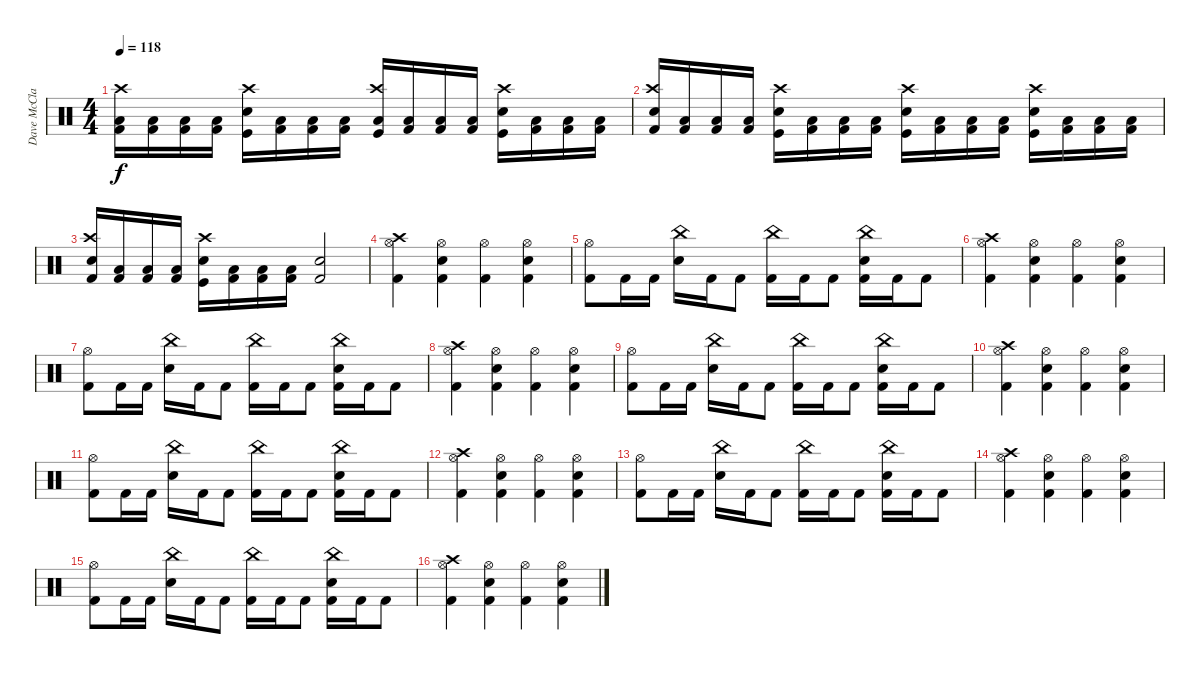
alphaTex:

\track ("Dave McClain" "Dave McCla") {instrument percussion}
\staff {score}
\articulation defaults
\ts (4 4)
\tempo 118
\clef neutral
\ks c
("Kick (hit) 2" "Low Floor Tom (hit)" "Crash high (hit)").16{dy f} ("Kick (hit) 2" "Low Floor Tom (hit)").16 ("Kick (hit) 2" "Low Floor Tom (hit)").16 ("Kick (hit) 2" "Low Floor Tom (hit)").16 ("Kick (hit)" "Snare (hit) 2" "Crash high (hit)").16 ("Kick (hit) 2" "Low Floor Tom (hit)").16 ("Kick (hit) 2" "Low Floor Tom (hit)").16 ("Kick (hit) 2" "Low Floor Tom (hit)").16 ("Kick (hit)" "Low Floor Tom (hit)" "Crash high (hit)").16 ("Kick (hit) 2" "Low Floor Tom (hit)").16 ("Kick (hit) 2" "Low Floor Tom (hit)").16 ("Kick (hit) 2" "Low Floor Tom (hit)").16 ("Kick (hit)" "Snare (hit) 2" "Crash high (hit)").16 ("Kick (hit) 2" "Low Floor Tom (hit)").16 ("Kick (hit) 2" "Low Floor Tom (hit)").16 ("Kick (hit) 2" "Low Floor Tom (hit)").16 |
("Kick (hit) 2" "Snare (hit) 2" "Crash high (hit)").16 ("Kick (hit) 2" "Low Floor Tom (hit)").16 ("Kick (hit) 2" "Low Floor Tom (hit)").16 ("Kick (hit) 2" "Low Floor Tom (hit)").16 ("Kick (hit)" "Snare (hit) 2" "Crash high (hit)").16 ("Kick (hit) 2" "Low Floor Tom (hit)").16 ("Kick (hit) 2" "Low Floor Tom (hit)").16 ("Kick (hit) 2" "Low Floor Tom (hit)").16 ("Kick (hit)" "Snare (hit) 2" "Crash high (hit)").16 ("Kick (hit) 2" "Low Floor Tom (hit)").16 ("Kick (hit) 2" "Low Floor Tom (hit)").16 ("Kick (hit) 2" "Low Floor Tom (hit)").16 ("Kick (hit)" "Snare (hit) 2" "Crash high (hit)").16 ("Kick (hit) 2" "Low Floor Tom (hit)").16 ("Kick (hit) 2" "Low Floor Tom (hit)").16 ("Kick (hit) 2" "Low Floor Tom (hit)").16 |
("Kick (hit) 2" "Snare (hit) 2" "Crash high (hit)").16 ("Kick (hit) 2" "Low Floor Tom (hit)").16 ("Kick (hit) 2" "Low Floor Tom (hit)").16 ("Kick (hit) 2" "Low Floor Tom (hit)").16 ("Kick (hit)" "Snare (hit) 2" "Crash high (hit)").16 ("Kick (hit) 2" "Low Floor Tom (hit)").16 ("Kick (hit) 2" "Low Floor Tom (hit)").16 ("Kick (hit) 2" "Low Floor Tom (hit)").16 ("Kick (hit) 2" "Snare (hit) 2").2 |
("Kick (hit) 2" "Hi-Hat (open)" "Crash high (hit)").4 ("Kick (hit) 2" "Snare (hit) 2" "Hi-Hat (open)").4 ("Kick (hit) 2" "Hi-Hat (open)").4 ("Kick (hit) 2" "Snare (hit) 2" "Hi-Hat (open)").4 |
("Kick (hit) 2" "Hi-Hat (open)").8 "Kick (hit) 2".16 "Kick (hit) 2".16 ("Snare (hit) 2" "China (hit)").16 "Kick (hit) 2".16 "Kick (hit) 2".8 ("Kick (hit) 2" "China (hit)").16 "Kick (hit) 2".16 "Kick (hit) 2".8 ("Kick (hit) 2" "Snare (hit) 2" "China (hit)").16 "Kick (hit) 2".16 "Kick (hit) 2".8 |
("Kick (hit) 2" "Hi-Hat (open)" "Crash high (hit)").4 ("Kick (hit) 2" "Snare (hit) 2" "Hi-Hat (open)").4 ("Kick (hit) 2" "Hi-Hat (open)").4 ("Kick (hit) 2" "Snare (hit) 2" "Hi-Hat (open)").4 |
("Kick (hit) 2" "Hi-Hat (open)").8 "Kick (hit) 2".16 "Kick (hit) 2".16 ("Snare (hit) 2" "China (hit)").16 "Kick (hit) 2".16 "Kick (hit) 2".8 ("Kick (hit) 2" "China (hit)").16 "Kick (hit) 2".16 "Kick (hit) 2".8 ("Kick (hit) 2" "Snare (hit) 2" "China (hit)").16 "Kick (hit) 2".16 "Kick (hit) 2".8 |
("Kick (hit) 2" "Hi-Hat (open)" "Crash high (hit)").4 ("Kick (hit) 2" "Snare (hit) 2" "Hi-Hat (open)").4 ("Kick (hit) 2" "Hi-Hat (open)").4 ("Kick (hit) 2" "Snare (hit) 2" "Hi-Hat (open)").4 |
("Kick (hit) 2" "Hi-Hat (open)").8 "Kick (hit) 2".16 "Kick (hit) 2".16 ("Snare (hit) 2" "China (hit)").16 "Kick (hit) 2".16 "Kick (hit) 2".8 ("Kick (hit) 2" "China (hit)").16 "Kick (hit) 2".16 "Kick (hit) 2".8 ("Kick (hit) 2" "Snare (hit) 2" "China (hit)").16 "Kick (hit) 2".16 "Kick (hit) 2".8 |
("Kick (hit) 2" "Hi-Hat (open)" "Crash high (hit)").4 ("Kick (hit) 2" "Snare (hit) 2" "Hi-Hat (open)").4 ("Kick (hit) 2" "Hi-Hat (open)").4 ("Kick (hit) 2" "Snare (hit) 2" "Hi-Hat (open)").4 |
("Kick (hit) 2" "Hi-Hat (open)").8 "Kick (hit) 2".16 "Kick (hit) 2".16 ("Snare (hit) 2" "China (hit)").16 "Kick (hit) 2".16 "Kick (hit) 2".8 ("Kick (hit) 2" "China (hit)").16 "Kick (hit) 2".16 "Kick (hit) 2".8 ("Kick (hit) 2" "Snare (hit) 2" "China (hit)").16 "Kick (hit) 2".16 "Kick (hit) 2".8 |
("Kick (hit) 2" "Hi-Hat (open)" "Crash high (hit)").4 ("Kick (hit) 2" "Snare (hit) 2" "Hi-Hat (open)").4 ("Kick (hit) 2" "Hi-Hat (open)").4 ("Kick (hit) 2" "Snare (hit) 2" "Hi-Hat (open)").4 |
("Kick (hit) 2" "Hi-Hat (open)").8 "Kick (hit) 2".16 "Kick (hit) 2".16 ("Snare (hit) 2" "China (hit)").16 "Kick (hit) 2".16 "Kick (hit) 2".8 ("Kick (hit) 2" "China (hit)").16 "Kick (hit) 2".16 "Kick (hit) 2".8 ("Kick (hit) 2" "Snare (hit) 2" "China (hit)").16 "Kick (hit) 2".16 "Kick (hit) 2".8 |
("Kick (hit) 2" "Hi-Hat (open)" "Crash high (hit)").4 ("Kick (hit) 2" "Snare (hit) 2" "Hi-Hat (open)").4 ("Kick (hit) 2" "Hi-Hat (open)").4 ("Kick (hit) 2" "Snare (hit) 2" "Hi-Hat (open)").4 |
("Kick (hit) 2" "Hi-Hat (open)").8 "Kick (hit) 2".16 "Kick (hit) 2".16 ("Snare (hit) 2" "China (hit)").16 "Kick (hit) 2".16 "Kick (hit) 2".8 ("Kick (hit) 2" "China (hit)").16 "Kick (hit) 2".16 "Kick (hit) 2".8 ("Kick (hit) 2" "Snare (hit) 2" "China (hit)").16 "Kick (hit) 2".16 "Kick (hit) 2".8 |
("Kick (hit) 2" "Hi-Hat (open)" "Crash high (hit)").4 ("Kick (hit) 2" "Snare (hit) 2" "Hi-Hat (open)").4 ("Kick (hit) 2" "Hi-Hat (open)").4 ("Kick (hit) 2" "Snare (hit) 2" "Hi-Hat (open)").4
